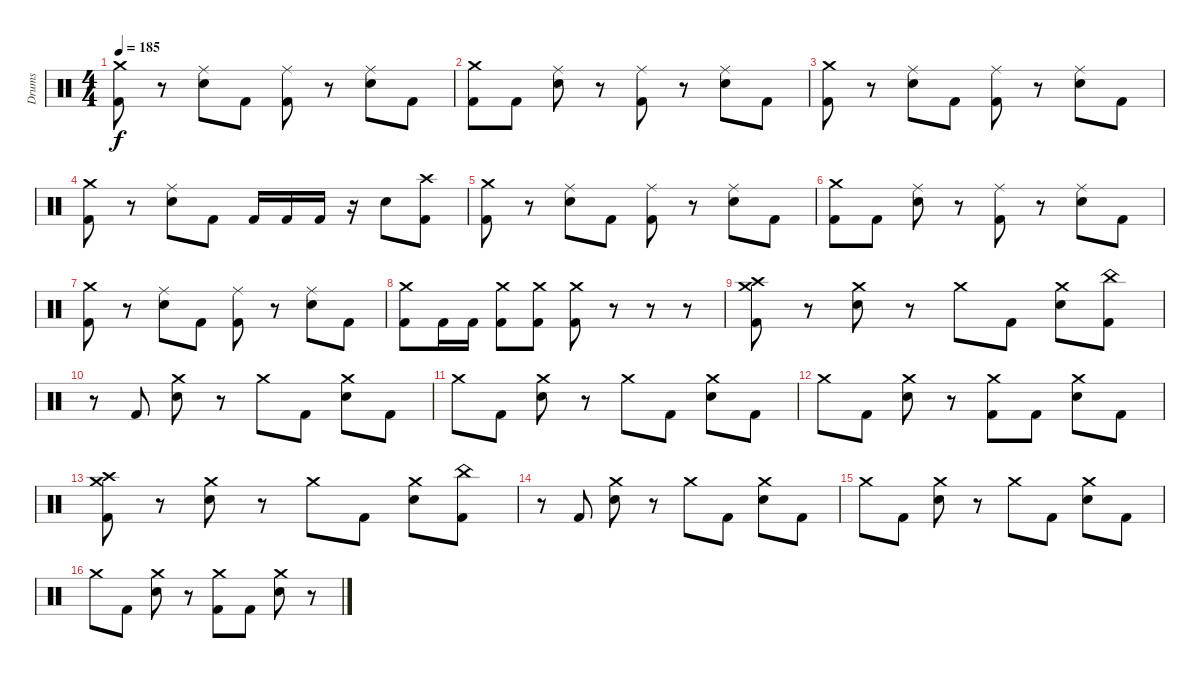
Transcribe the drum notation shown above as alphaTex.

\track ("Drums" "Drums") {solo instrument percussion}
\staff {score}
\articulation defaults
\ts (4 4)
\tempo 185
\clef neutral
\ks c
("Crash medium (hit)" "Kick (hit) 2").8{dy f} r.8 ("Snare (hit) 2" "Ride (middle)").8 "Kick (hit) 2".8 ("Ride (middle)" "Kick (hit) 2").8 r.8 ("Snare (hit) 2" "Ride (middle)").8 "Kick (hit) 2".8 |
("Crash medium (hit)" "Kick (hit) 2").8 "Kick (hit) 2".8 ("Snare (hit) 2" "Ride (middle)").8 r.8 ("Ride (middle)" "Kick (hit) 2").8 r.8 ("Snare (hit) 2" "Ride (middle)").8 "Kick (hit) 2".8 |
("Crash medium (hit)" "Kick (hit) 2").8 r.8 ("Snare (hit) 2" "Ride (middle)").8 "Kick (hit) 2".8 ("Ride (middle)" "Kick (hit) 2").8 r.8 ("Snare (hit) 2" "Ride (middle)").8 "Kick (hit) 2".8 |
("Crash medium (hit)" "Kick (hit) 2").8 r.8 ("Snare (hit) 2" "Ride (middle)").8 "Kick (hit) 2".8 "Kick (hit) 2".16 "Kick (hit) 2".16 "Kick (hit) 2".16 r.16 "Snare (hit) 2".8 ("Crash high (hit)" "Kick (hit) 2").8 |
("Crash medium (hit)" "Kick (hit) 2").8 r.8 ("Snare (hit) 2" "Ride (middle)").8 "Kick (hit) 2".8 ("Ride (middle)" "Kick (hit) 2").8 r.8 ("Snare (hit) 2" "Ride (middle)").8 "Kick (hit) 2".8 |
("Crash medium (hit)" "Kick (hit) 2").8 "Kick (hit) 2".8 ("Snare (hit) 2" "Ride (middle)").8 r.8 ("Ride (middle)" "Kick (hit) 2").8 r.8 ("Snare (hit) 2" "Ride (middle)").8 "Kick (hit) 2".8 |
("Crash medium (hit)" "Kick (hit) 2").8 r.8 ("Snare (hit) 2" "Ride (middle)").8 "Kick (hit) 2".8 ("Ride (middle)" "Kick (hit) 2").8 r.8 ("Snare (hit) 2" "Ride (middle)").8 "Kick (hit) 2".8 |
("Crash medium (hit)" "Kick (hit) 2").8 "Kick (hit) 2".16 "Kick (hit) 2".16 ("Crash medium (hit)" "Kick (hit) 2").8 ("Crash medium (hit)" "Kick (hit) 2").8 ("Crash medium (hit)" "Kick (hit) 2").8 r.8 r.8 r.8 |
("Crash medium (hit)" "Crash high (hit)" "Kick (hit) 2").8 r.8 ("Crash medium (hit)" "Snare (hit) 2").8 r.8 "Crash medium (hit)".8 "Kick (hit) 2".8 ("Crash medium (hit)" "Snare (hit) 2").8 ("China (hit)" "Kick (hit) 2").8 |
r.8 "Kick (hit) 2".8 ("Crash medium (hit)" "Snare (hit) 2").8 r.8 "Crash medium (hit)".8 "Kick (hit) 2".8 ("Crash medium (hit)" "Snare (hit) 2").8 "Kick (hit) 2".8 |
"Crash medium (hit)".8 "Kick (hit) 2".8 ("Crash medium (hit)" "Snare (hit) 2").8 r.8 "Crash medium (hit)".8 "Kick (hit) 2".8 ("Crash medium (hit)" "Snare (hit) 2").8 "Kick (hit) 2".8 |
"Crash medium (hit)".8 "Kick (hit) 2".8 ("Crash medium (hit)" "Snare (hit) 2").8 r.8 ("Crash medium (hit)" "Kick (hit) 2").8 "Kick (hit) 2".8 ("Crash medium (hit)" "Snare (hit) 2").8 "Kick (hit) 2".8 |
("Crash medium (hit)" "Crash high (hit)" "Kick (hit) 2").8 r.8 ("Crash medium (hit)" "Snare (hit) 2").8 r.8 "Crash medium (hit)".8 "Kick (hit) 2".8 ("Crash medium (hit)" "Snare (hit) 2").8 ("China (hit)" "Kick (hit) 2").8 |
r.8 "Kick (hit) 2".8 ("Crash medium (hit)" "Snare (hit) 2").8 r.8 "Crash medium (hit)".8 "Kick (hit) 2".8 ("Crash medium (hit)" "Snare (hit) 2").8 "Kick (hit) 2".8 |
"Crash medium (hit)".8 "Kick (hit) 2".8 ("Crash medium (hit)" "Snare (hit) 2").8 r.8 "Crash medium (hit)".8 "Kick (hit) 2".8 ("Crash medium (hit)" "Snare (hit) 2").8 "Kick (hit) 2".8 |
"Crash medium (hit)".8 "Kick (hit) 2".8 ("Crash medium (hit)" "Snare (hit) 2").8 r.8 ("Crash medium (hit)" "Kick (hit) 2").8 "Kick (hit) 2".8 ("Crash medium (hit)" "Snare (hit) 2").8 r.8
